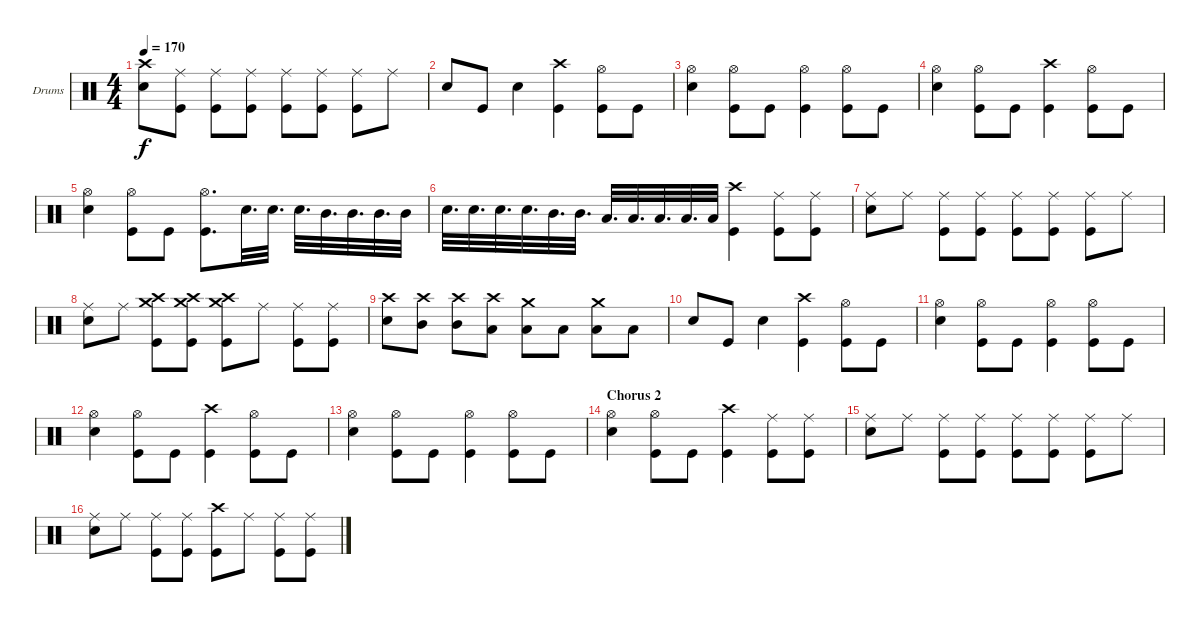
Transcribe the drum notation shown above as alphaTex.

\defaultSystemsLayout 4
\bracketExtendMode groupsimilarinstruments
\firstSystemTrackNameOrientation horizontal
\otherSystemsTrackNameOrientation horizontal
\track ("Jimmy \"The Hammer\" - Drums" "Drums") {instrument percussion}
\staff {score}
\articulation defaults
\ts (4 4)
\tempo 170
\clef neutral
\ks c
("Snare (hit) 2" "Crash high (hit)").8{dy f} ("Kick (hit)" "Ride (middle)").8 ("Kick (hit)" "Ride (middle)").8 ("Kick (hit)" "Ride (middle)").8 ("Kick (hit)" "Ride (middle)").8 ("Kick (hit)" "Ride (middle)").8 ("Kick (hit)" "Ride (middle)").8 "Ride (middle)".8 |
"Snare (hit) 2".8 "Kick (hit)".8 "Snare (hit) 2".4 ("Kick (hit)" "Crash high (hit)").4 ("Kick (hit)" "Hi-Hat (open)").8 "Kick (hit)".8 |
("Snare (hit) 2" "Hi-Hat (open)").4 ("Kick (hit)" "Hi-Hat (open)").8 "Kick (hit)".8 ("Kick (hit)" "Hi-Hat (open)").4 ("Kick (hit)" "Hi-Hat (open)").8 "Kick (hit)".8 |
("Snare (hit) 2" "Hi-Hat (open)").4 ("Kick (hit)" "Hi-Hat (open)").8 "Kick (hit)".8 ("Kick (hit)" "Crash high (hit)").4 ("Kick (hit)" "Hi-Hat (open)").8 "Kick (hit)".8 |
("Snare (hit) 2" "Hi-Hat (open)").4 ("Kick (hit)" "Hi-Hat (open)").8 "Kick (hit)".8 ("Kick (hit)" "Hi-Hat (open)").8{d} "Snare (hit) 2".32{d} "Snare (hit) 2".32{d} "Snare (hit) 2".32{d} "Mid Tom (hit)".32{d} "Mid Tom (hit)".32{d} "Mid Tom (hit)".32{d} "Mid Tom (hit)".32 |
"Snare (hit) 2".32{d} "Snare (hit) 2".32{d} "Snare (hit) 2".32{d} "Snare (hit) 2".32{d} "Mid Tom (hit)".32{d} "Mid Tom (hit)".32{d} "Low Tom (hit)".32{d} "Low Tom (hit)".32{d} "Low Tom (hit)".32{d} "Low Tom (hit)".32{d} "Low Tom (hit)".32 ("Kick (hit)" "Crash high (hit)").4 ("Kick (hit)" "Ride (middle)").8 ("Kick (hit)" "Ride (middle)").8 |
("Snare (hit) 2" "Ride (middle)").8 "Ride (middle)".8 ("Kick (hit)" "Ride (middle)").8 ("Kick (hit)" "Ride (middle)").8 ("Kick (hit)" "Ride (middle)").8 ("Kick (hit)" "Ride (middle)").8 ("Kick (hit)" "Ride (middle)").8 "Ride (middle)".8 |
("Snare (hit) 2" "Ride (middle)").8 "Ride (middle)".8 ("Kick (hit)" "Crash high (hit)" "Crash medium (hit)").8 ("Kick (hit)" "Crash high (hit)" "Crash medium (hit)").8 ("Kick (hit)" "Crash high (hit)" "Crash medium (hit)").8 "Ride (middle)".8 ("Kick (hit)" "Ride (middle)").8 ("Kick (hit)" "Ride (middle)").8 |
("Snare (hit) 2" "Crash high (hit)").8 ("Crash high (hit)" "Mid Tom (hit)").8 ("Crash high (hit)" "Mid Tom (hit)").8 ("Crash high (hit)" "Low Tom (hit)").8 ("Low Tom (hit)" "Crash medium (hit)").8 "Low Tom (hit)".8 ("Low Tom (hit)" "Crash medium (hit)").8 "Low Tom (hit)".8 |
"Snare (hit) 2".8 "Kick (hit)".8 "Snare (hit) 2".4 ("Kick (hit)" "Crash high (hit)").4 ("Kick (hit)" "Hi-Hat (open)").8 "Kick (hit)".8 |
("Snare (hit) 2" "Hi-Hat (open)").4 ("Kick (hit)" "Hi-Hat (open)").8 "Kick (hit)".8 ("Kick (hit)" "Hi-Hat (open)").4 ("Kick (hit)" "Hi-Hat (open)").8 "Kick (hit)".8 |
("Snare (hit) 2" "Hi-Hat (open)").4 ("Kick (hit)" "Hi-Hat (open)").8 "Kick (hit)".8 ("Kick (hit)" "Crash high (hit)").4 ("Kick (hit)" "Hi-Hat (open)").8 "Kick (hit)".8 |
("Snare (hit) 2" "Hi-Hat (open)").4 ("Kick (hit)" "Hi-Hat (open)").8 "Kick (hit)".8 ("Kick (hit)" "Hi-Hat (open)").4 ("Kick (hit)" "Hi-Hat (open)").8 "Kick (hit)".8 |
\section ("" "Chorus 2")
("Snare (hit) 2" "Hi-Hat (open)").4 ("Kick (hit)" "Hi-Hat (open)").8 "Kick (hit)".8 ("Kick (hit)" "Crash high (hit)").4 ("Kick (hit)" "Ride (middle)").8 ("Kick (hit)" "Ride (middle)").8 |
("Snare (hit) 2" "Ride (middle)").8 "Ride (middle)".8 ("Kick (hit)" "Ride (middle)").8 ("Kick (hit)" "Ride (middle)").8 ("Kick (hit)" "Ride (middle)").8 ("Kick (hit)" "Ride (middle)").8 ("Kick (hit)" "Ride (middle)").8 "Ride (middle)".8 |
("Snare (hit) 2" "Ride (middle)").8 "Ride (middle)".8 ("Kick (hit)" "Ride (middle)").8 ("Kick (hit)" "Ride (middle)").8 ("Kick (hit)" "Crash high (hit)").8 "Ride (middle)".8 ("Kick (hit)" "Ride (middle)").8 ("Kick (hit)" "Ride (middle)").8
